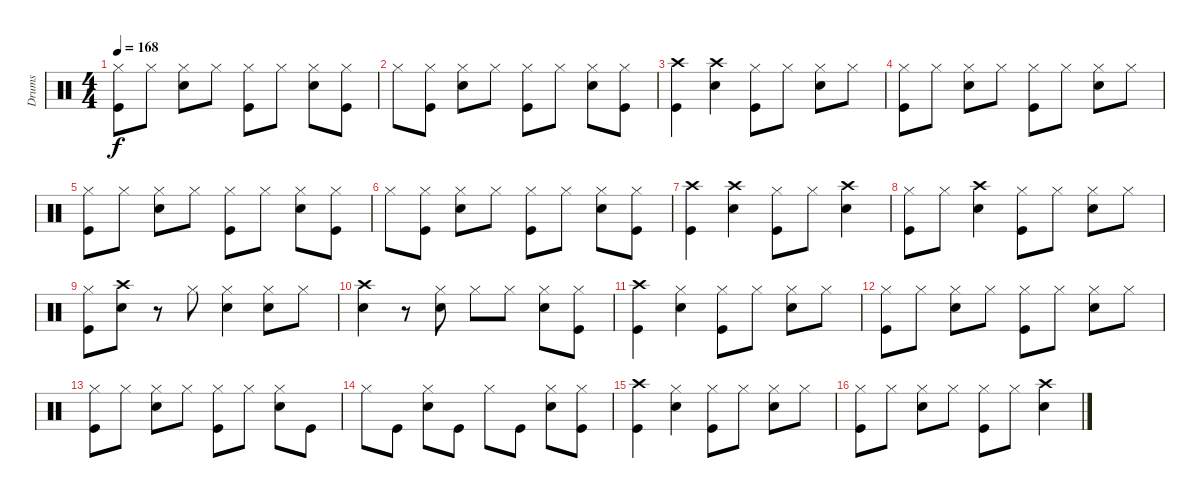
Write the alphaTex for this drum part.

\track ("Drums" "Drums") {instrument percussion}
\staff {score}
\articulation defaults
\ts (4 4)
\tempo 168
\clef neutral
\ks c
("Hi-Hat (closed)" "Kick (hit)").8{dy f} "Hi-Hat (closed)".8 ("Hi-Hat (closed)" "Electric Snare (hit)").8 "Hi-Hat (closed)".8 ("Hi-Hat (closed)" "Kick (hit)").8 "Hi-Hat (closed)".8 ("Hi-Hat (closed)" "Electric Snare (hit)").8 ("Hi-Hat (closed)" "Kick (hit)").8 |
"Hi-Hat (closed)".8 ("Hi-Hat (closed)" "Kick (hit)").8 ("Hi-Hat (closed)" "Electric Snare (hit)").8 "Hi-Hat (closed)".8 ("Hi-Hat (closed)" "Kick (hit)").8 "Hi-Hat (closed)".8 ("Hi-Hat (closed)" "Electric Snare (hit)").8 ("Hi-Hat (closed)" "Kick (hit)").8 |
("Crash high (hit)" "Kick (hit)").4 ("Crash high (hit)" "Electric Snare (hit)").4 ("Hi-Hat (closed)" "Kick (hit)").8 "Hi-Hat (closed)".8 ("Hi-Hat (closed)" "Electric Snare (hit)").8 "Hi-Hat (closed)".8 |
("Hi-Hat (closed)" "Kick (hit)").8 "Hi-Hat (closed)".8 ("Hi-Hat (closed)" "Electric Snare (hit)").8 "Hi-Hat (closed)".8 ("Hi-Hat (closed)" "Kick (hit)").8 "Hi-Hat (closed)".8 ("Hi-Hat (closed)" "Electric Snare (hit)").8 "Hi-Hat (closed)".8 |
("Hi-Hat (closed)" "Kick (hit)").8 "Hi-Hat (closed)".8 ("Hi-Hat (closed)" "Electric Snare (hit)").8 "Hi-Hat (closed)".8 ("Hi-Hat (closed)" "Kick (hit)").8 "Hi-Hat (closed)".8 ("Hi-Hat (closed)" "Electric Snare (hit)").8 ("Hi-Hat (closed)" "Kick (hit)").8 |
"Hi-Hat (closed)".8 ("Hi-Hat (closed)" "Kick (hit)").8 ("Hi-Hat (closed)" "Electric Snare (hit)").8 "Hi-Hat (closed)".8 ("Hi-Hat (closed)" "Kick (hit)").8 "Hi-Hat (closed)".8 ("Hi-Hat (closed)" "Electric Snare (hit)").8 ("Hi-Hat (closed)" "Kick (hit)").8 |
("Crash high (hit)" "Kick (hit)").4 ("Crash high (hit)" "Electric Snare (hit)").4 ("Hi-Hat (closed)" "Kick (hit)").8 "Hi-Hat (closed)".8 ("Crash high (hit)" "Electric Snare (hit)").4 |
("Hi-Hat (closed)" "Kick (hit)").8 "Hi-Hat (closed)".8 ("Crash high (hit)" "Electric Snare (hit)").4 ("Hi-Hat (closed)" "Kick (hit)").8 "Hi-Hat (closed)".8 ("Hi-Hat (closed)" "Electric Snare (hit)").8 "Hi-Hat (closed)".8 |
("Hi-Hat (closed)" "Kick (hit)").8 ("Crash high (hit)" "Electric Snare (hit)").8 r.8 "Hi-Hat (closed)".8 ("Hi-Hat (closed)" "Electric Snare (hit)").4 ("Hi-Hat (closed)" "Electric Snare (hit)").8 "Hi-Hat (closed)".8 |
("Crash high (hit)" "Electric Snare (hit)").4 r.8 ("Hi-Hat (closed)" "Electric Snare (hit)").8 "Hi-Hat (closed)".8 "Hi-Hat (closed)".8 ("Hi-Hat (closed)" "Electric Snare (hit)").8 ("Hi-Hat (closed)" "Kick (hit)").8 |
("Crash high (hit)" "Kick (hit)").4 ("Hi-Hat (closed)" "Electric Snare (hit)").4 ("Hi-Hat (closed)" "Kick (hit)").8 "Hi-Hat (closed)".8 ("Hi-Hat (closed)" "Electric Snare (hit)").8 "Hi-Hat (closed)".8 |
("Hi-Hat (closed)" "Kick (hit)").8 "Hi-Hat (closed)".8 ("Hi-Hat (closed)" "Electric Snare (hit)").8 "Hi-Hat (closed)".8 ("Hi-Hat (closed)" "Kick (hit)").8 "Hi-Hat (closed)".8 ("Hi-Hat (closed)" "Electric Snare (hit)").8 "Hi-Hat (closed)".8 |
("Hi-Hat (closed)" "Kick (hit)").8 "Hi-Hat (closed)".8 ("Hi-Hat (closed)" "Electric Snare (hit)").8 "Hi-Hat (closed)".8 ("Hi-Hat (closed)" "Kick (hit)").8 "Hi-Hat (closed)".8 ("Hi-Hat (closed)" "Electric Snare (hit)").8 "Kick (hit)".8 |
"Hi-Hat (closed)".8 "Kick (hit)".8 ("Hi-Hat (closed)" "Electric Snare (hit)").8 "Kick (hit)".8 "Hi-Hat (closed)".8 "Kick (hit)".8 ("Hi-Hat (closed)" "Electric Snare (hit)").8 ("Hi-Hat (closed)" "Kick (hit)").8 |
("Crash high (hit)" "Kick (hit)").4 ("Hi-Hat (closed)" "Electric Snare (hit)").4 ("Hi-Hat (closed)" "Kick (hit)").8 "Hi-Hat (closed)".8 ("Hi-Hat (closed)" "Electric Snare (hit)").8 "Hi-Hat (closed)".8 |
("Hi-Hat (closed)" "Kick (hit)").8 "Hi-Hat (closed)".8 ("Hi-Hat (closed)" "Electric Snare (hit)").8 "Hi-Hat (closed)".8 ("Hi-Hat (closed)" "Kick (hit)").8 "Hi-Hat (closed)".8 ("Crash high (hit)" "Electric Snare (hit)").4
